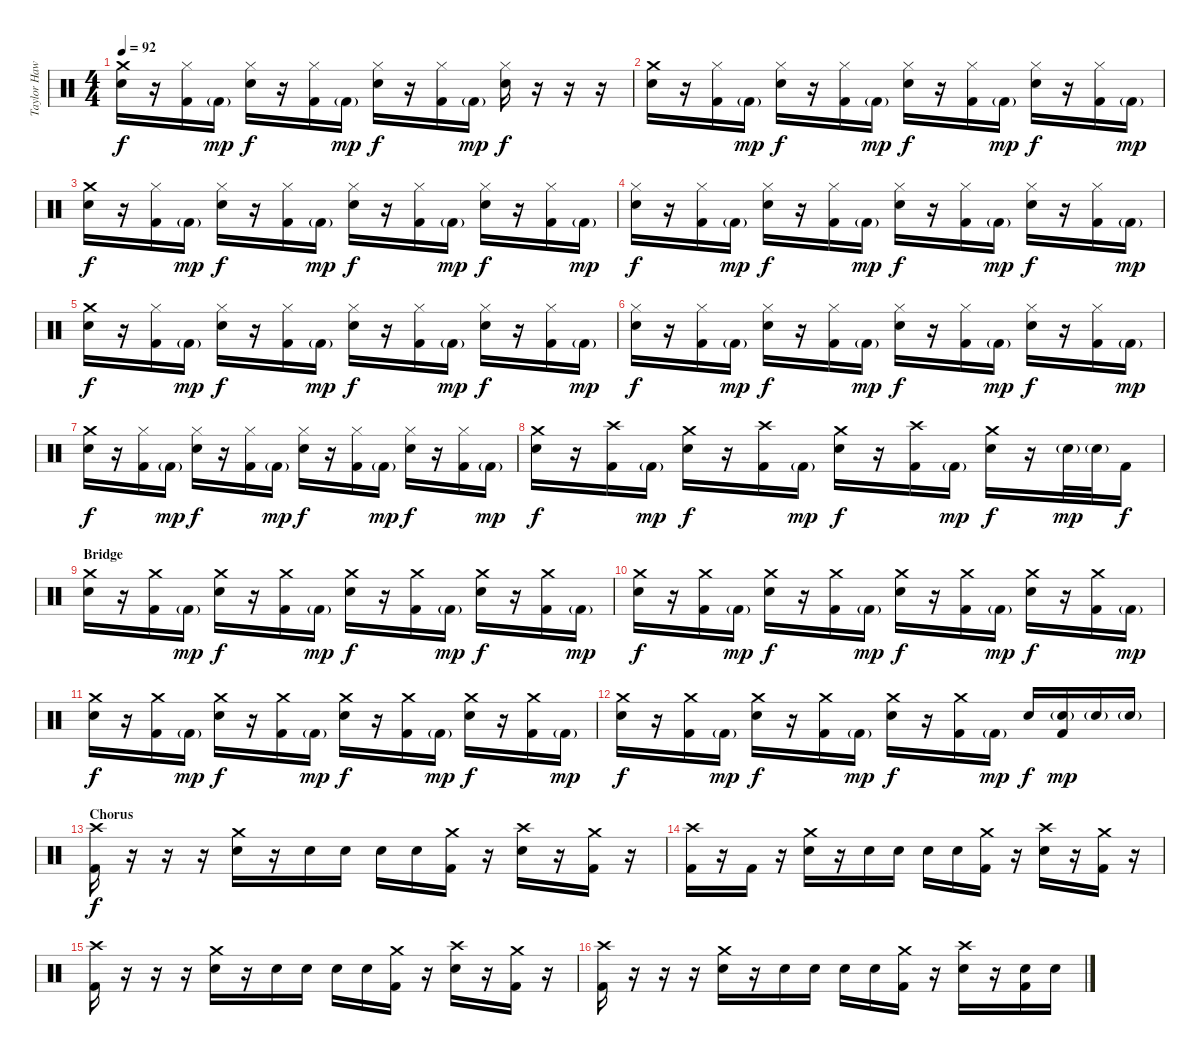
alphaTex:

\track ("Taylor Hawkins (Drums)" "Taylor Haw") {instrument percussion}
\staff {score}
\articulation defaults
\ts (4 4)
\tempo 92
\clef neutral
\ks c
("Crash medium (hit)" "Electric Snare (hit)").16{dy f} r.16 ("Hi-Hat (closed)" "Kick (hit) 2").16 "Kick (hit) 2"{g}.16{dy mp} ("Hi-Hat (closed)" "Electric Snare (hit)").16{dy f} r.16 ("Hi-Hat (closed)" "Kick (hit) 2").16 "Kick (hit) 2"{g}.16{dy mp} ("Hi-Hat (closed)" "Electric Snare (hit)").16{dy f} r.16 ("Hi-Hat (closed)" "Kick (hit) 2").16 "Kick (hit) 2"{g}.16{dy mp} ("Hi-Hat (closed)" "Electric Snare (hit)").16{dy f} r.16 r.16 r.16 |
("Crash medium (hit)" "Electric Snare (hit)").16 r.16 ("Hi-Hat (closed)" "Kick (hit) 2").16 "Kick (hit) 2"{g}.16{dy mp} ("Hi-Hat (closed)" "Electric Snare (hit)").16{dy f} r.16 ("Hi-Hat (closed)" "Kick (hit) 2").16 "Kick (hit) 2"{g}.16{dy mp} ("Hi-Hat (closed)" "Electric Snare (hit)").16{dy f} r.16 ("Hi-Hat (closed)" "Kick (hit) 2").16 "Kick (hit) 2"{g}.16{dy mp} ("Hi-Hat (closed)" "Electric Snare (hit)").16{dy f} r.16 ("Hi-Hat (closed)" "Kick (hit) 2").16 "Kick (hit) 2"{g}.16{dy mp} |
("Crash medium (hit)" "Electric Snare (hit)").16{dy f} r.16 ("Hi-Hat (closed)" "Kick (hit) 2").16 "Kick (hit) 2"{g}.16{dy mp} ("Hi-Hat (closed)" "Electric Snare (hit)").16{dy f} r.16 ("Hi-Hat (closed)" "Kick (hit) 2").16 "Kick (hit) 2"{g}.16{dy mp} ("Hi-Hat (closed)" "Electric Snare (hit)").16{dy f} r.16 ("Hi-Hat (closed)" "Kick (hit) 2").16 "Kick (hit) 2"{g}.16{dy mp} ("Hi-Hat (closed)" "Electric Snare (hit)").16{dy f} r.16 ("Hi-Hat (closed)" "Kick (hit) 2").16 "Kick (hit) 2"{g}.16{dy mp} |
("Hi-Hat (closed)" "Electric Snare (hit)").16{dy f} r.16 ("Hi-Hat (closed)" "Kick (hit) 2").16 "Kick (hit) 2"{g}.16{dy mp} ("Hi-Hat (closed)" "Electric Snare (hit)").16{dy f} r.16 ("Hi-Hat (closed)" "Kick (hit) 2").16 "Kick (hit) 2"{g}.16{dy mp} ("Hi-Hat (closed)" "Electric Snare (hit)").16{dy f} r.16 ("Hi-Hat (closed)" "Kick (hit) 2").16 "Kick (hit) 2"{g}.16{dy mp} ("Hi-Hat (closed)" "Electric Snare (hit)").16{dy f} r.16 ("Hi-Hat (closed)" "Kick (hit) 2").16 "Kick (hit) 2"{g}.16{dy mp} |
("Crash medium (hit)" "Electric Snare (hit)").16{dy f} r.16 ("Hi-Hat (closed)" "Kick (hit) 2").16 "Kick (hit) 2"{g}.16{dy mp} ("Hi-Hat (closed)" "Electric Snare (hit)").16{dy f} r.16 ("Hi-Hat (closed)" "Kick (hit) 2").16 "Kick (hit) 2"{g}.16{dy mp} ("Hi-Hat (closed)" "Electric Snare (hit)").16{dy f} r.16 ("Hi-Hat (closed)" "Kick (hit) 2").16 "Kick (hit) 2"{g}.16{dy mp} ("Hi-Hat (closed)" "Electric Snare (hit)").16{dy f} r.16 ("Hi-Hat (closed)" "Kick (hit) 2").16 "Kick (hit) 2"{g}.16{dy mp} |
("Hi-Hat (closed)" "Electric Snare (hit)").16{dy f} r.16 ("Hi-Hat (closed)" "Kick (hit) 2").16 "Kick (hit) 2"{g}.16{dy mp} ("Hi-Hat (closed)" "Electric Snare (hit)").16{dy f} r.16 ("Hi-Hat (closed)" "Kick (hit) 2").16 "Kick (hit) 2"{g}.16{dy mp} ("Hi-Hat (closed)" "Electric Snare (hit)").16{dy f} r.16 ("Hi-Hat (closed)" "Kick (hit) 2").16 "Kick (hit) 2"{g}.16{dy mp} ("Hi-Hat (closed)" "Electric Snare (hit)").16{dy f} r.16 ("Hi-Hat (closed)" "Kick (hit) 2").16 "Kick (hit) 2"{g}.16{dy mp} |
("Crash medium (hit)" "Electric Snare (hit)").16{dy f} r.16 ("Hi-Hat (closed)" "Kick (hit) 2").16 "Kick (hit) 2"{g}.16{dy mp} ("Hi-Hat (closed)" "Electric Snare (hit)").16{dy f} r.16 ("Hi-Hat (closed)" "Kick (hit) 2").16 "Kick (hit) 2"{g}.16{dy mp} ("Hi-Hat (closed)" "Electric Snare (hit)").16{dy f} r.16 ("Hi-Hat (closed)" "Kick (hit) 2").16 "Kick (hit) 2"{g}.16{dy mp} ("Hi-Hat (closed)" "Electric Snare (hit)").16{dy f} r.16 ("Hi-Hat (closed)" "Kick (hit) 2").16 "Kick (hit) 2"{g}.16{dy mp} |
("Crash medium (hit)" "Electric Snare (hit)").16{dy f} r.16 ("Crash high (hit)" "Kick (hit) 2").16 "Kick (hit) 2"{g}.16{dy mp} ("Crash medium (hit)" "Electric Snare (hit)").16{dy f} r.16 ("Crash high (hit)" "Kick (hit) 2").16 "Kick (hit) 2"{g}.16{dy mp} ("Crash medium (hit)" "Electric Snare (hit)").16{dy f} r.16 ("Crash high (hit)" "Kick (hit) 2").16 "Kick (hit) 2"{g}.16{dy mp} ("Crash medium (hit)" "Electric Snare (hit)").16{dy f} r.16 "Electric Snare (hit)"{g}.32{dy mp} "Electric Snare (hit)"{g}.32 "Kick (hit) 2".16{dy f} |
\section ("" "Bridge")
("Crash medium (hit)" "Electric Snare (hit)").16 r.16 ("Crash medium (hit)" "Kick (hit) 2").16 "Kick (hit) 2"{g}.16{dy mp} ("Crash medium (hit)" "Electric Snare (hit)").16{dy f} r.16 ("Crash medium (hit)" "Kick (hit) 2").16 "Kick (hit) 2"{g}.16{dy mp} ("Crash medium (hit)" "Electric Snare (hit)").16{dy f} r.16 ("Crash medium (hit)" "Kick (hit) 2").16 "Kick (hit) 2"{g}.16{dy mp} ("Crash medium (hit)" "Electric Snare (hit)").16{dy f} r.16 ("Crash medium (hit)" "Kick (hit) 2").16 "Kick (hit) 2"{g}.16{dy mp} |
("Crash medium (hit)" "Electric Snare (hit)").16{dy f} r.16 ("Crash medium (hit)" "Kick (hit) 2").16 "Kick (hit) 2"{g}.16{dy mp} ("Crash medium (hit)" "Electric Snare (hit)").16{dy f} r.16 ("Crash medium (hit)" "Kick (hit) 2").16 "Kick (hit) 2"{g}.16{dy mp} ("Crash medium (hit)" "Electric Snare (hit)").16{dy f} r.16 ("Crash medium (hit)" "Kick (hit) 2").16 "Kick (hit) 2"{g}.16{dy mp} ("Crash medium (hit)" "Electric Snare (hit)").16{dy f} r.16 ("Crash medium (hit)" "Kick (hit) 2").16 "Kick (hit) 2"{g}.16{dy mp} |
("Crash medium (hit)" "Electric Snare (hit)").16{dy f} r.16 ("Crash medium (hit)" "Kick (hit) 2").16 "Kick (hit) 2"{g}.16{dy mp} ("Crash medium (hit)" "Electric Snare (hit)").16{dy f} r.16 ("Crash medium (hit)" "Kick (hit) 2").16 "Kick (hit) 2"{g}.16{dy mp} ("Crash medium (hit)" "Electric Snare (hit)").16{dy f} r.16 ("Crash medium (hit)" "Kick (hit) 2").16 "Kick (hit) 2"{g}.16{dy mp} ("Crash medium (hit)" "Electric Snare (hit)").16{dy f} r.16 ("Crash medium (hit)" "Kick (hit) 2").16 "Kick (hit) 2"{g}.16{dy mp} |
("Crash medium (hit)" "Electric Snare (hit)").16{dy f} r.16 ("Crash medium (hit)" "Kick (hit) 2").16 "Kick (hit) 2"{g}.16{dy mp} ("Crash medium (hit)" "Electric Snare (hit)").16{dy f} r.16 ("Crash medium (hit)" "Kick (hit) 2").16 "Kick (hit) 2"{g}.16{dy mp} ("Crash medium (hit)" "Electric Snare (hit)").16{dy f} r.16 ("Crash medium (hit)" "Kick (hit) 2").16 "Kick (hit) 2"{g}.16{dy mp} "Electric Snare (hit)".16{dy f} ("Electric Snare (hit)"{g} "Kick (hit) 2").16{dy mp} "Electric Snare (hit)"{g}.16 "Electric Snare (hit)"{g}.16 |
\section ("" "Chorus")
("Crash high (hit)" "Kick (hit) 2").16{dy f} r.16 r.16 r.16 ("Crash medium (hit)" "Electric Snare (hit)").16 r.16 "Electric Snare (hit)".16 "Electric Snare (hit)".16 "Electric Snare (hit)".16 "Electric Snare (hit)".16 ("Crash medium (hit)" "Kick (hit) 2").16 r.16 ("Crash high (hit)" "Electric Snare (hit)").16 r.16 ("Crash medium (hit)" "Kick (hit) 2").16 r.16 |
("Crash high (hit)" "Kick (hit) 2").16 r.16 "Kick (hit) 2".16 r.16 ("Crash medium (hit)" "Electric Snare (hit)").16 r.16 "Electric Snare (hit)".16 "Electric Snare (hit)".16 "Electric Snare (hit)".16 "Electric Snare (hit)".16 ("Crash medium (hit)" "Kick (hit) 2").16 r.16 ("Crash high (hit)" "Electric Snare (hit)").16 r.16 ("Crash medium (hit)" "Kick (hit) 2").16 r.16 |
("Crash high (hit)" "Kick (hit) 2").16 r.16 r.16 r.16 ("Crash medium (hit)" "Electric Snare (hit)").16 r.16 "Electric Snare (hit)".16 "Electric Snare (hit)".16 "Electric Snare (hit)".16 "Electric Snare (hit)".16 ("Crash medium (hit)" "Kick (hit) 2").16 r.16 ("Crash high (hit)" "Electric Snare (hit)").16 r.16 ("Crash medium (hit)" "Kick (hit) 2").16 r.16 |
("Crash high (hit)" "Kick (hit) 2").16 r.16 r.16 r.16 ("Crash medium (hit)" "Electric Snare (hit)").16 r.16 "Electric Snare (hit)".16 "Electric Snare (hit)".16 "Electric Snare (hit)".16 "Electric Snare (hit)".16 ("Crash medium (hit)" "Kick (hit) 2").16 r.16 ("Crash high (hit)" "Electric Snare (hit)").16 r.16 ("Electric Snare (hit)" "Kick (hit) 2").16 "Electric Snare (hit)".16
